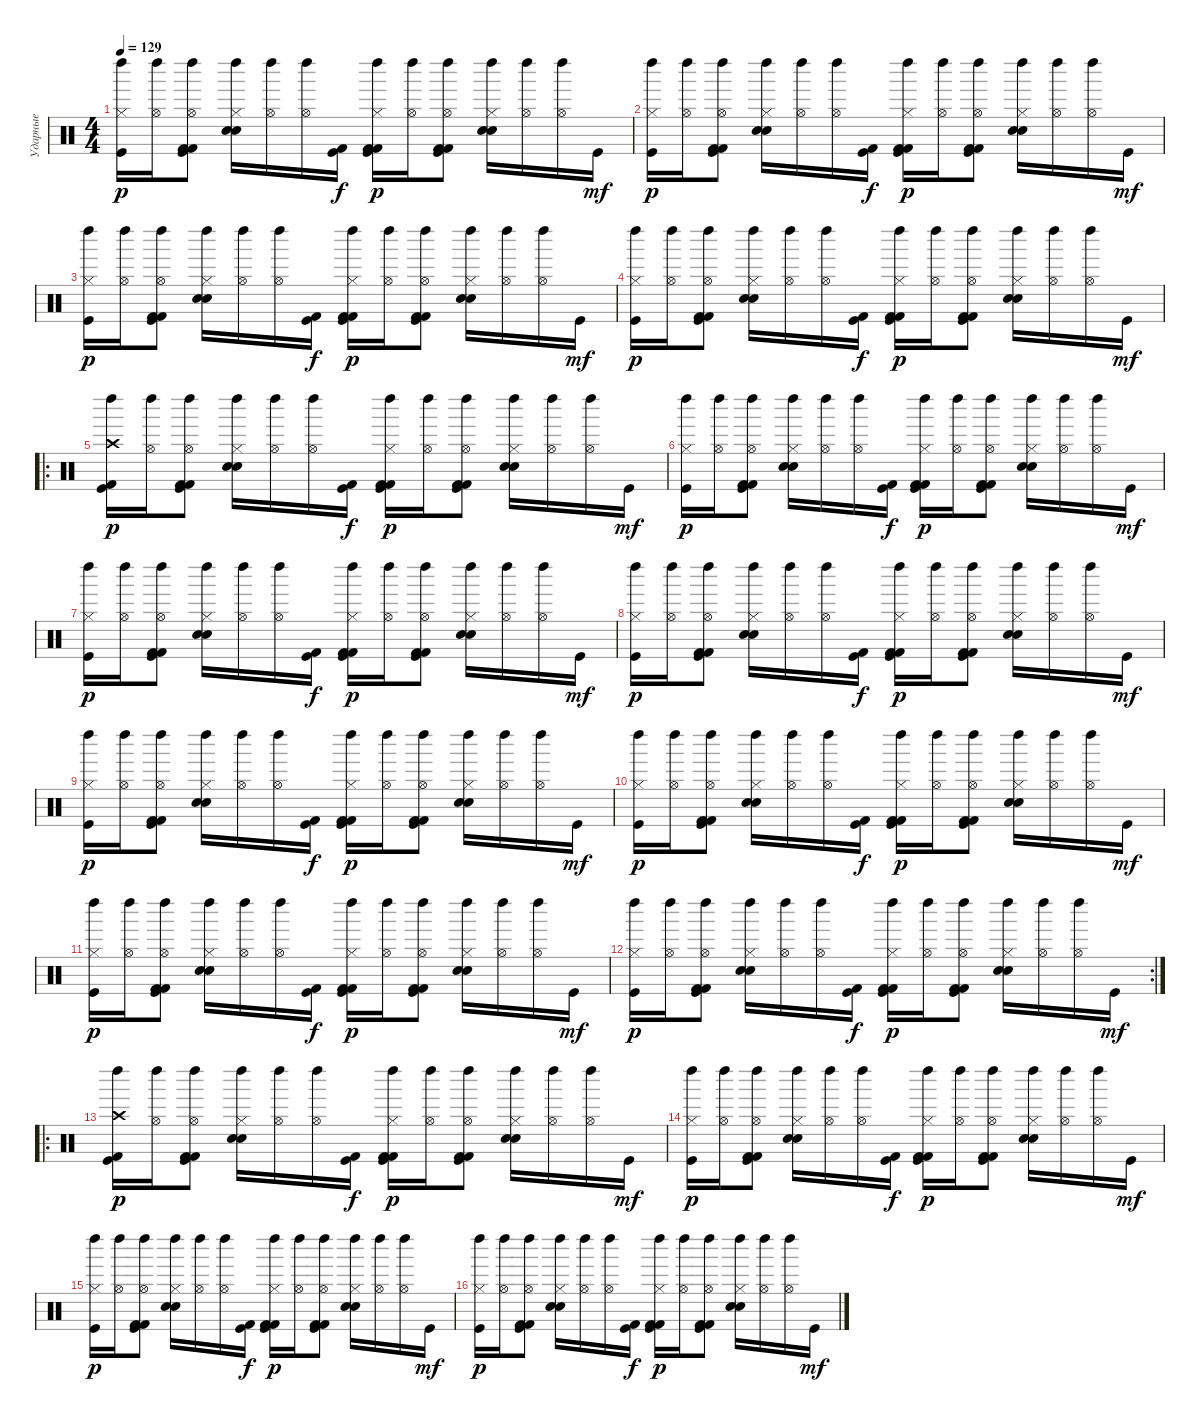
\track ("Ударные" "Ударные") {instrument percussion}
\staff {score}
\articulation defaults
\ts (4 4)
\tempo 129
\clef neutral
\ks c
("Kick (hit)" "Hi-Hat (closed)" "Left Maraca (hit)").16{dy p} ("Left Maraca (hit)" "Hi-Hat (open)").16 ("Kick (hit)" "Kick (hit) 2" "Kick (hit) 2" "Left Maraca (hit)" "Hi-Hat (open)").8 ("Snare (hit) 2" "Electric Snare (hit)" "Hi-Hat (closed)" "Left Maraca (hit)").16 ("Left Maraca (hit)" "Hi-Hat (open)").16 ("Left Maraca (hit)" "Hi-Hat (open)").16 ("Kick (hit)" "Kick (hit) 2").16{dy f} ("Kick (hit)" "Kick (hit) 2" "Kick (hit) 2" "Hi-Hat (closed)" "Left Maraca (hit)").16{dy p} ("Left Maraca (hit)" "Hi-Hat (open)").16 ("Kick (hit)" "Kick (hit) 2" "Kick (hit) 2" "Left Maraca (hit)" "Hi-Hat (open)").8 ("Snare (hit) 2" "Electric Snare (hit)" "Hi-Hat (closed)" "Left Maraca (hit)").16 ("Left Maraca (hit)" "Hi-Hat (open)").16 ("Left Maraca (hit)" "Hi-Hat (open)").16 "Kick (hit)".16{dy mf} |
("Kick (hit)" "Hi-Hat (closed)" "Left Maraca (hit)").16{dy p} ("Left Maraca (hit)" "Hi-Hat (open)").16 ("Kick (hit)" "Kick (hit) 2" "Kick (hit) 2" "Left Maraca (hit)" "Hi-Hat (open)").8 ("Snare (hit) 2" "Electric Snare (hit)" "Hi-Hat (closed)" "Left Maraca (hit)").16 ("Left Maraca (hit)" "Hi-Hat (open)").16 ("Left Maraca (hit)" "Hi-Hat (open)").16 ("Kick (hit)" "Kick (hit) 2").16{dy f} ("Kick (hit)" "Kick (hit) 2" "Kick (hit) 2" "Hi-Hat (closed)" "Left Maraca (hit)").16{dy p} ("Left Maraca (hit)" "Hi-Hat (open)").16 ("Kick (hit)" "Kick (hit) 2" "Kick (hit) 2" "Left Maraca (hit)" "Hi-Hat (open)").8 ("Snare (hit) 2" "Electric Snare (hit)" "Hi-Hat (closed)" "Left Maraca (hit)").16 ("Left Maraca (hit)" "Hi-Hat (open)").16 ("Left Maraca (hit)" "Hi-Hat (open)").16 "Kick (hit)".16{dy mf} |
("Kick (hit)" "Hi-Hat (closed)" "Left Maraca (hit)").16{dy p} ("Left Maraca (hit)" "Hi-Hat (open)").16 ("Kick (hit)" "Kick (hit) 2" "Kick (hit) 2" "Left Maraca (hit)" "Hi-Hat (open)").8 ("Snare (hit) 2" "Electric Snare (hit)" "Hi-Hat (closed)" "Left Maraca (hit)").16 ("Left Maraca (hit)" "Hi-Hat (open)").16 ("Left Maraca (hit)" "Hi-Hat (open)").16 ("Kick (hit)" "Kick (hit) 2").16{dy f} ("Kick (hit)" "Kick (hit) 2" "Kick (hit) 2" "Hi-Hat (closed)" "Left Maraca (hit)").16{dy p} ("Left Maraca (hit)" "Hi-Hat (open)").16 ("Kick (hit)" "Kick (hit) 2" "Kick (hit) 2" "Left Maraca (hit)" "Hi-Hat (open)").8 ("Snare (hit) 2" "Electric Snare (hit)" "Hi-Hat (closed)" "Left Maraca (hit)").16 ("Left Maraca (hit)" "Hi-Hat (open)").16 ("Left Maraca (hit)" "Hi-Hat (open)").16 "Kick (hit)".16{dy mf} |
("Kick (hit)" "Hi-Hat (closed)" "Left Maraca (hit)").16{dy p} ("Left Maraca (hit)" "Hi-Hat (open)").16 ("Kick (hit)" "Kick (hit) 2" "Kick (hit) 2" "Left Maraca (hit)" "Hi-Hat (open)").8 ("Snare (hit) 2" "Electric Snare (hit)" "Hi-Hat (closed)" "Left Maraca (hit)").16 ("Left Maraca (hit)" "Hi-Hat (open)").16 ("Left Maraca (hit)" "Hi-Hat (open)").16 ("Kick (hit)" "Kick (hit) 2").16{dy f} ("Kick (hit)" "Kick (hit) 2" "Kick (hit) 2" "Hi-Hat (closed)" "Left Maraca (hit)").16{dy p} ("Left Maraca (hit)" "Hi-Hat (open)").16 ("Kick (hit)" "Kick (hit) 2" "Kick (hit) 2" "Left Maraca (hit)" "Hi-Hat (open)").8 ("Snare (hit) 2" "Electric Snare (hit)" "Hi-Hat (closed)" "Left Maraca (hit)").16 ("Left Maraca (hit)" "Hi-Hat (open)").16 ("Left Maraca (hit)" "Hi-Hat (open)").16 "Kick (hit)".16{dy mf} |
\ro
("Kick (hit)" "Kick (hit) 2" "Crash high (hit)" "Left Maraca (hit)").16{dy p} ("Left Maraca (hit)" "Hi-Hat (open)").16 ("Kick (hit)" "Kick (hit) 2" "Kick (hit) 2" "Left Maraca (hit)" "Hi-Hat (open)").8 ("Snare (hit) 2" "Electric Snare (hit)" "Hi-Hat (closed)" "Left Maraca (hit)").16 ("Left Maraca (hit)" "Hi-Hat (open)").16 ("Left Maraca (hit)" "Hi-Hat (open)").16 ("Kick (hit)" "Kick (hit) 2").16{dy f} ("Kick (hit)" "Kick (hit) 2" "Kick (hit) 2" "Hi-Hat (closed)" "Left Maraca (hit)").16{dy p} ("Left Maraca (hit)" "Hi-Hat (open)").16 ("Kick (hit)" "Kick (hit) 2" "Kick (hit) 2" "Left Maraca (hit)" "Hi-Hat (open)").8 ("Snare (hit) 2" "Electric Snare (hit)" "Hi-Hat (closed)" "Left Maraca (hit)").16 ("Left Maraca (hit)" "Hi-Hat (open)").16 ("Left Maraca (hit)" "Hi-Hat (open)").16 "Kick (hit)".16{dy mf} |
("Kick (hit)" "Hi-Hat (closed)" "Left Maraca (hit)").16{dy p} ("Left Maraca (hit)" "Hi-Hat (open)").16 ("Kick (hit)" "Kick (hit) 2" "Kick (hit) 2" "Left Maraca (hit)" "Hi-Hat (open)").8 ("Snare (hit) 2" "Electric Snare (hit)" "Hi-Hat (closed)" "Left Maraca (hit)").16 ("Left Maraca (hit)" "Hi-Hat (open)").16 ("Left Maraca (hit)" "Hi-Hat (open)").16 ("Kick (hit)" "Kick (hit) 2").16{dy f} ("Kick (hit)" "Kick (hit) 2" "Kick (hit) 2" "Hi-Hat (closed)" "Left Maraca (hit)").16{dy p} ("Left Maraca (hit)" "Hi-Hat (open)").16 ("Kick (hit)" "Kick (hit) 2" "Kick (hit) 2" "Left Maraca (hit)" "Hi-Hat (open)").8 ("Snare (hit) 2" "Electric Snare (hit)" "Hi-Hat (closed)" "Left Maraca (hit)").16 ("Left Maraca (hit)" "Hi-Hat (open)").16 ("Left Maraca (hit)" "Hi-Hat (open)").16 "Kick (hit)".16{dy mf} |
("Kick (hit)" "Hi-Hat (closed)" "Left Maraca (hit)").16{dy p} ("Left Maraca (hit)" "Hi-Hat (open)").16 ("Kick (hit)" "Kick (hit) 2" "Kick (hit) 2" "Left Maraca (hit)" "Hi-Hat (open)").8 ("Snare (hit) 2" "Electric Snare (hit)" "Hi-Hat (closed)" "Left Maraca (hit)").16 ("Left Maraca (hit)" "Hi-Hat (open)").16 ("Left Maraca (hit)" "Hi-Hat (open)").16 ("Kick (hit)" "Kick (hit) 2").16{dy f} ("Kick (hit)" "Kick (hit) 2" "Kick (hit) 2" "Hi-Hat (closed)" "Left Maraca (hit)").16{dy p} ("Left Maraca (hit)" "Hi-Hat (open)").16 ("Kick (hit)" "Kick (hit) 2" "Kick (hit) 2" "Left Maraca (hit)" "Hi-Hat (open)").8 ("Snare (hit) 2" "Electric Snare (hit)" "Hi-Hat (closed)" "Left Maraca (hit)").16 ("Left Maraca (hit)" "Hi-Hat (open)").16 ("Left Maraca (hit)" "Hi-Hat (open)").16 "Kick (hit)".16{dy mf} |
("Kick (hit)" "Hi-Hat (closed)" "Left Maraca (hit)").16{dy p} ("Left Maraca (hit)" "Hi-Hat (open)").16 ("Kick (hit)" "Kick (hit) 2" "Kick (hit) 2" "Left Maraca (hit)" "Hi-Hat (open)").8 ("Snare (hit) 2" "Electric Snare (hit)" "Hi-Hat (closed)" "Left Maraca (hit)").16 ("Left Maraca (hit)" "Hi-Hat (open)").16 ("Left Maraca (hit)" "Hi-Hat (open)").16 ("Kick (hit)" "Kick (hit) 2").16{dy f} ("Kick (hit)" "Kick (hit) 2" "Kick (hit) 2" "Hi-Hat (closed)" "Left Maraca (hit)").16{dy p} ("Left Maraca (hit)" "Hi-Hat (open)").16 ("Kick (hit)" "Kick (hit) 2" "Kick (hit) 2" "Left Maraca (hit)" "Hi-Hat (open)").8 ("Snare (hit) 2" "Electric Snare (hit)" "Hi-Hat (closed)" "Left Maraca (hit)").16 ("Left Maraca (hit)" "Hi-Hat (open)").16 ("Left Maraca (hit)" "Hi-Hat (open)").16 "Kick (hit)".16{dy mf} |
("Kick (hit)" "Hi-Hat (closed)" "Left Maraca (hit)").16{dy p} ("Left Maraca (hit)" "Hi-Hat (open)").16 ("Kick (hit)" "Kick (hit) 2" "Kick (hit) 2" "Left Maraca (hit)" "Hi-Hat (open)").8 ("Snare (hit) 2" "Electric Snare (hit)" "Hi-Hat (closed)" "Left Maraca (hit)").16 ("Left Maraca (hit)" "Hi-Hat (open)").16 ("Left Maraca (hit)" "Hi-Hat (open)").16 ("Kick (hit)" "Kick (hit) 2").16{dy f} ("Kick (hit)" "Kick (hit) 2" "Kick (hit) 2" "Hi-Hat (closed)" "Left Maraca (hit)").16{dy p} ("Left Maraca (hit)" "Hi-Hat (open)").16 ("Kick (hit)" "Kick (hit) 2" "Kick (hit) 2" "Left Maraca (hit)" "Hi-Hat (open)").8 ("Snare (hit) 2" "Electric Snare (hit)" "Hi-Hat (closed)" "Left Maraca (hit)").16 ("Left Maraca (hit)" "Hi-Hat (open)").16 ("Left Maraca (hit)" "Hi-Hat (open)").16 "Kick (hit)".16{dy mf} |
("Kick (hit)" "Hi-Hat (closed)" "Left Maraca (hit)").16{dy p} ("Left Maraca (hit)" "Hi-Hat (open)").16 ("Kick (hit)" "Kick (hit) 2" "Kick (hit) 2" "Left Maraca (hit)" "Hi-Hat (open)").8 ("Snare (hit) 2" "Electric Snare (hit)" "Hi-Hat (closed)" "Left Maraca (hit)").16 ("Left Maraca (hit)" "Hi-Hat (open)").16 ("Left Maraca (hit)" "Hi-Hat (open)").16 ("Kick (hit)" "Kick (hit) 2").16{dy f} ("Kick (hit)" "Kick (hit) 2" "Kick (hit) 2" "Hi-Hat (closed)" "Left Maraca (hit)").16{dy p} ("Left Maraca (hit)" "Hi-Hat (open)").16 ("Kick (hit)" "Kick (hit) 2" "Kick (hit) 2" "Left Maraca (hit)" "Hi-Hat (open)").8 ("Snare (hit) 2" "Electric Snare (hit)" "Hi-Hat (closed)" "Left Maraca (hit)").16 ("Left Maraca (hit)" "Hi-Hat (open)").16 ("Left Maraca (hit)" "Hi-Hat (open)").16 "Kick (hit)".16{dy mf} |
("Kick (hit)" "Hi-Hat (closed)" "Left Maraca (hit)").16{dy p} ("Left Maraca (hit)" "Hi-Hat (open)").16 ("Kick (hit)" "Kick (hit) 2" "Kick (hit) 2" "Left Maraca (hit)" "Hi-Hat (open)").8 ("Snare (hit) 2" "Electric Snare (hit)" "Hi-Hat (closed)" "Left Maraca (hit)").16 ("Left Maraca (hit)" "Hi-Hat (open)").16 ("Left Maraca (hit)" "Hi-Hat (open)").16 ("Kick (hit)" "Kick (hit) 2").16{dy f} ("Kick (hit)" "Kick (hit) 2" "Kick (hit) 2" "Hi-Hat (closed)" "Left Maraca (hit)").16{dy p} ("Left Maraca (hit)" "Hi-Hat (open)").16 ("Kick (hit)" "Kick (hit) 2" "Kick (hit) 2" "Left Maraca (hit)" "Hi-Hat (open)").8 ("Snare (hit) 2" "Electric Snare (hit)" "Hi-Hat (closed)" "Left Maraca (hit)").16 ("Left Maraca (hit)" "Hi-Hat (open)").16 ("Left Maraca (hit)" "Hi-Hat (open)").16 "Kick (hit)".16{dy mf} |
\rc 2
("Kick (hit)" "Hi-Hat (closed)" "Left Maraca (hit)").16{dy p} ("Left Maraca (hit)" "Hi-Hat (open)").16 ("Kick (hit)" "Kick (hit) 2" "Kick (hit) 2" "Left Maraca (hit)" "Hi-Hat (open)").8 ("Snare (hit) 2" "Electric Snare (hit)" "Hi-Hat (closed)" "Left Maraca (hit)").16 ("Left Maraca (hit)" "Hi-Hat (open)").16 ("Left Maraca (hit)" "Hi-Hat (open)").16 ("Kick (hit)" "Kick (hit) 2").16{dy f} ("Kick (hit)" "Kick (hit) 2" "Kick (hit) 2" "Hi-Hat (closed)" "Left Maraca (hit)").16{dy p} ("Left Maraca (hit)" "Hi-Hat (open)").16 ("Kick (hit)" "Kick (hit) 2" "Kick (hit) 2" "Left Maraca (hit)" "Hi-Hat (open)").8 ("Snare (hit) 2" "Electric Snare (hit)" "Hi-Hat (closed)" "Left Maraca (hit)").16 ("Left Maraca (hit)" "Hi-Hat (open)").16 ("Left Maraca (hit)" "Hi-Hat (open)").16 "Kick (hit)".16{dy mf} |
\ro
("Kick (hit)" "Kick (hit) 2" "Crash high (hit)" "Left Maraca (hit)").16{dy p} ("Left Maraca (hit)" "Hi-Hat (open)").16 ("Kick (hit)" "Kick (hit) 2" "Kick (hit) 2" "Left Maraca (hit)" "Hi-Hat (open)").8 ("Snare (hit) 2" "Electric Snare (hit)" "Hi-Hat (closed)" "Left Maraca (hit)").16 ("Left Maraca (hit)" "Hi-Hat (open)").16 ("Left Maraca (hit)" "Hi-Hat (open)").16 ("Kick (hit)" "Kick (hit) 2").16{dy f} ("Kick (hit)" "Kick (hit) 2" "Kick (hit) 2" "Hi-Hat (closed)" "Left Maraca (hit)").16{dy p} ("Left Maraca (hit)" "Hi-Hat (open)").16 ("Kick (hit)" "Kick (hit) 2" "Kick (hit) 2" "Left Maraca (hit)" "Hi-Hat (open)").8 ("Snare (hit) 2" "Electric Snare (hit)" "Hi-Hat (closed)" "Left Maraca (hit)").16 ("Left Maraca (hit)" "Hi-Hat (open)").16 ("Left Maraca (hit)" "Hi-Hat (open)").16 "Kick (hit)".16{dy mf} |
("Kick (hit)" "Hi-Hat (closed)" "Left Maraca (hit)").16{dy p} ("Left Maraca (hit)" "Hi-Hat (open)").16 ("Kick (hit)" "Kick (hit) 2" "Kick (hit) 2" "Left Maraca (hit)" "Hi-Hat (open)").8 ("Snare (hit) 2" "Electric Snare (hit)" "Hi-Hat (closed)" "Left Maraca (hit)").16 ("Left Maraca (hit)" "Hi-Hat (open)").16 ("Left Maraca (hit)" "Hi-Hat (open)").16 ("Kick (hit)" "Kick (hit) 2").16{dy f} ("Kick (hit)" "Kick (hit) 2" "Kick (hit) 2" "Hi-Hat (closed)" "Left Maraca (hit)").16{dy p} ("Left Maraca (hit)" "Hi-Hat (open)").16 ("Kick (hit)" "Kick (hit) 2" "Kick (hit) 2" "Left Maraca (hit)" "Hi-Hat (open)").8 ("Snare (hit) 2" "Electric Snare (hit)" "Hi-Hat (closed)" "Left Maraca (hit)").16 ("Left Maraca (hit)" "Hi-Hat (open)").16 ("Left Maraca (hit)" "Hi-Hat (open)").16 "Kick (hit)".16{dy mf} |
("Kick (hit)" "Hi-Hat (closed)" "Left Maraca (hit)").16{dy p} ("Left Maraca (hit)" "Hi-Hat (open)").16 ("Kick (hit)" "Kick (hit) 2" "Kick (hit) 2" "Left Maraca (hit)" "Hi-Hat (open)").8 ("Snare (hit) 2" "Electric Snare (hit)" "Hi-Hat (closed)" "Left Maraca (hit)").16 ("Left Maraca (hit)" "Hi-Hat (open)").16 ("Left Maraca (hit)" "Hi-Hat (open)").16 ("Kick (hit)" "Kick (hit) 2").16{dy f} ("Kick (hit)" "Kick (hit) 2" "Kick (hit) 2" "Hi-Hat (closed)" "Left Maraca (hit)").16{dy p} ("Left Maraca (hit)" "Hi-Hat (open)").16 ("Kick (hit)" "Kick (hit) 2" "Kick (hit) 2" "Left Maraca (hit)" "Hi-Hat (open)").8 ("Snare (hit) 2" "Electric Snare (hit)" "Hi-Hat (closed)" "Left Maraca (hit)").16 ("Left Maraca (hit)" "Hi-Hat (open)").16 ("Left Maraca (hit)" "Hi-Hat (open)").16 "Kick (hit)".16{dy mf} |
("Kick (hit)" "Hi-Hat (closed)" "Left Maraca (hit)").16{dy p} ("Left Maraca (hit)" "Hi-Hat (open)").16 ("Kick (hit)" "Kick (hit) 2" "Kick (hit) 2" "Left Maraca (hit)" "Hi-Hat (open)").8 ("Snare (hit) 2" "Electric Snare (hit)" "Hi-Hat (closed)" "Left Maraca (hit)").16 ("Left Maraca (hit)" "Hi-Hat (open)").16 ("Left Maraca (hit)" "Hi-Hat (open)").16 ("Kick (hit)" "Kick (hit) 2").16{dy f} ("Kick (hit)" "Kick (hit) 2" "Kick (hit) 2" "Hi-Hat (closed)" "Left Maraca (hit)").16{dy p} ("Left Maraca (hit)" "Hi-Hat (open)").16 ("Kick (hit)" "Kick (hit) 2" "Kick (hit) 2" "Left Maraca (hit)" "Hi-Hat (open)").8 ("Snare (hit) 2" "Electric Snare (hit)" "Hi-Hat (closed)" "Left Maraca (hit)").16 ("Left Maraca (hit)" "Hi-Hat (open)").16 ("Left Maraca (hit)" "Hi-Hat (open)").16 "Kick (hit)".16{dy mf}
